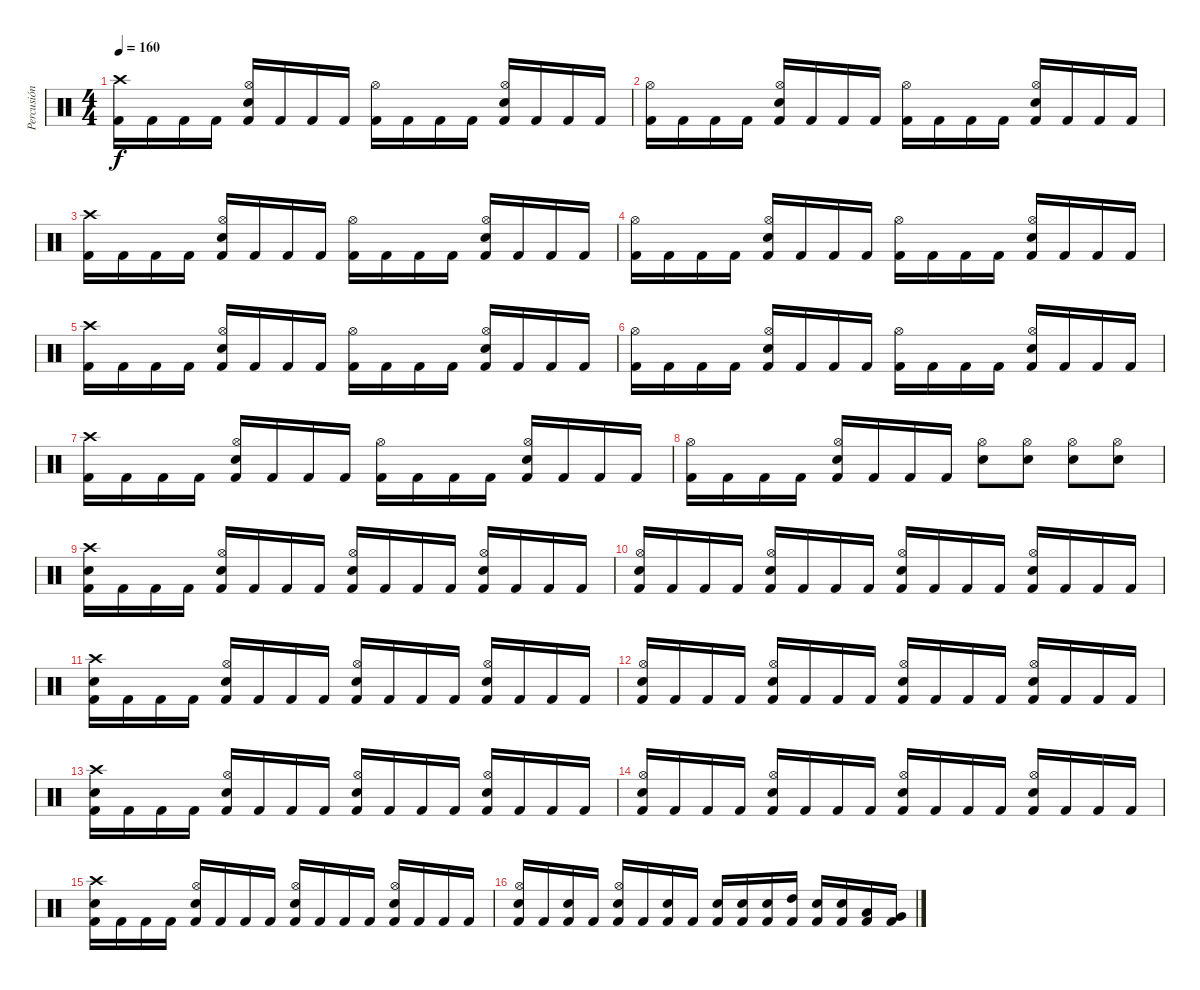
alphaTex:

\track ("Percusión" "Percusión") {instrument percussion}
\staff {score}
\articulation defaults
\ts (4 4)
\tempo 160
\clef neutral
\ks c
("Crash high (hit)" "Kick (hit) 2").16{dy f} "Kick (hit) 2".16 "Kick (hit) 2".16 "Kick (hit) 2".16 ("Hi-Hat (open)" "Snare (hit) 2" "Kick (hit) 2").16 "Kick (hit) 2".16 "Kick (hit) 2".16 "Kick (hit) 2".16 ("Hi-Hat (open)" "Kick (hit) 2").16 "Kick (hit) 2".16 "Kick (hit) 2".16 "Kick (hit) 2".16 ("Hi-Hat (open)" "Snare (hit) 2" "Kick (hit) 2").16 "Kick (hit) 2".16 "Kick (hit) 2".16 "Kick (hit) 2".16 |
("Hi-Hat (open)" "Kick (hit) 2").16 "Kick (hit) 2".16 "Kick (hit) 2".16 "Kick (hit) 2".16 ("Hi-Hat (open)" "Snare (hit) 2" "Kick (hit) 2").16 "Kick (hit) 2".16 "Kick (hit) 2".16 "Kick (hit) 2".16 ("Hi-Hat (open)" "Kick (hit) 2").16 "Kick (hit) 2".16 "Kick (hit) 2".16 "Kick (hit) 2".16 ("Hi-Hat (open)" "Snare (hit) 2" "Kick (hit) 2").16 "Kick (hit) 2".16 "Kick (hit) 2".16 "Kick (hit) 2".16 |
("Crash high (hit)" "Kick (hit) 2").16 "Kick (hit) 2".16 "Kick (hit) 2".16 "Kick (hit) 2".16 ("Hi-Hat (open)" "Snare (hit) 2" "Kick (hit) 2").16 "Kick (hit) 2".16 "Kick (hit) 2".16 "Kick (hit) 2".16 ("Hi-Hat (open)" "Kick (hit) 2").16 "Kick (hit) 2".16 "Kick (hit) 2".16 "Kick (hit) 2".16 ("Hi-Hat (open)" "Snare (hit) 2" "Kick (hit) 2").16 "Kick (hit) 2".16 "Kick (hit) 2".16 "Kick (hit) 2".16 |
("Hi-Hat (open)" "Kick (hit) 2").16 "Kick (hit) 2".16 "Kick (hit) 2".16 "Kick (hit) 2".16 ("Hi-Hat (open)" "Snare (hit) 2" "Kick (hit) 2").16 "Kick (hit) 2".16 "Kick (hit) 2".16 "Kick (hit) 2".16 ("Hi-Hat (open)" "Kick (hit) 2").16 "Kick (hit) 2".16 "Kick (hit) 2".16 "Kick (hit) 2".16 ("Hi-Hat (open)" "Snare (hit) 2" "Kick (hit) 2").16 "Kick (hit) 2".16 "Kick (hit) 2".16 "Kick (hit) 2".16 |
("Crash high (hit)" "Kick (hit) 2").16 "Kick (hit) 2".16 "Kick (hit) 2".16 "Kick (hit) 2".16 ("Hi-Hat (open)" "Snare (hit) 2" "Kick (hit) 2").16 "Kick (hit) 2".16 "Kick (hit) 2".16 "Kick (hit) 2".16 ("Hi-Hat (open)" "Kick (hit) 2").16 "Kick (hit) 2".16 "Kick (hit) 2".16 "Kick (hit) 2".16 ("Hi-Hat (open)" "Snare (hit) 2" "Kick (hit) 2").16 "Kick (hit) 2".16 "Kick (hit) 2".16 "Kick (hit) 2".16 |
("Hi-Hat (open)" "Kick (hit) 2").16 "Kick (hit) 2".16 "Kick (hit) 2".16 "Kick (hit) 2".16 ("Hi-Hat (open)" "Snare (hit) 2" "Kick (hit) 2").16 "Kick (hit) 2".16 "Kick (hit) 2".16 "Kick (hit) 2".16 ("Hi-Hat (open)" "Kick (hit) 2").16 "Kick (hit) 2".16 "Kick (hit) 2".16 "Kick (hit) 2".16 ("Hi-Hat (open)" "Snare (hit) 2" "Kick (hit) 2").16 "Kick (hit) 2".16 "Kick (hit) 2".16 "Kick (hit) 2".16 |
("Crash high (hit)" "Kick (hit) 2").16 "Kick (hit) 2".16 "Kick (hit) 2".16 "Kick (hit) 2".16 ("Hi-Hat (open)" "Snare (hit) 2" "Kick (hit) 2").16 "Kick (hit) 2".16 "Kick (hit) 2".16 "Kick (hit) 2".16 ("Hi-Hat (open)" "Kick (hit) 2").16 "Kick (hit) 2".16 "Kick (hit) 2".16 "Kick (hit) 2".16 ("Hi-Hat (open)" "Snare (hit) 2" "Kick (hit) 2").16 "Kick (hit) 2".16 "Kick (hit) 2".16 "Kick (hit) 2".16 |
("Hi-Hat (open)" "Kick (hit) 2").16 "Kick (hit) 2".16 "Kick (hit) 2".16 "Kick (hit) 2".16 ("Hi-Hat (open)" "Snare (hit) 2" "Kick (hit) 2").16 "Kick (hit) 2".16 "Kick (hit) 2".16 "Kick (hit) 2".16 ("Hi-Hat (open)" "Snare (hit) 2").8 ("Hi-Hat (open)" "Snare (hit) 2").8 ("Hi-Hat (open)" "Snare (hit) 2").8 ("Hi-Hat (open)" "Snare (hit) 2").8 |
("Crash high (hit)" "Snare (hit) 2" "Kick (hit) 2").16 "Kick (hit) 2".16 "Kick (hit) 2".16 "Kick (hit) 2".16 ("Hi-Hat (open)" "Snare (hit) 2" "Kick (hit) 2").16 "Kick (hit) 2".16 "Kick (hit) 2".16 "Kick (hit) 2".16 ("Hi-Hat (open)" "Snare (hit) 2" "Kick (hit) 2").16 "Kick (hit) 2".16 "Kick (hit) 2".16 "Kick (hit) 2".16 ("Hi-Hat (open)" "Snare (hit) 2" "Kick (hit) 2").16 "Kick (hit) 2".16 "Kick (hit) 2".16 "Kick (hit) 2".16 |
("Hi-Hat (open)" "Snare (hit) 2" "Kick (hit) 2").16 "Kick (hit) 2".16 "Kick (hit) 2".16 "Kick (hit) 2".16 ("Hi-Hat (open)" "Snare (hit) 2" "Kick (hit) 2").16 "Kick (hit) 2".16 "Kick (hit) 2".16 "Kick (hit) 2".16 ("Hi-Hat (open)" "Snare (hit) 2" "Kick (hit) 2").16 "Kick (hit) 2".16 "Kick (hit) 2".16 "Kick (hit) 2".16 ("Hi-Hat (open)" "Snare (hit) 2" "Kick (hit) 2").16 "Kick (hit) 2".16 "Kick (hit) 2".16 "Kick (hit) 2".16 |
("Crash high (hit)" "Snare (hit) 2" "Kick (hit) 2").16 "Kick (hit) 2".16 "Kick (hit) 2".16 "Kick (hit) 2".16 ("Hi-Hat (open)" "Snare (hit) 2" "Kick (hit) 2").16 "Kick (hit) 2".16 "Kick (hit) 2".16 "Kick (hit) 2".16 ("Hi-Hat (open)" "Snare (hit) 2" "Kick (hit) 2").16 "Kick (hit) 2".16 "Kick (hit) 2".16 "Kick (hit) 2".16 ("Hi-Hat (open)" "Snare (hit) 2" "Kick (hit) 2").16 "Kick (hit) 2".16 "Kick (hit) 2".16 "Kick (hit) 2".16 |
("Hi-Hat (open)" "Snare (hit) 2" "Kick (hit) 2").16 "Kick (hit) 2".16 "Kick (hit) 2".16 "Kick (hit) 2".16 ("Hi-Hat (open)" "Snare (hit) 2" "Kick (hit) 2").16 "Kick (hit) 2".16 "Kick (hit) 2".16 "Kick (hit) 2".16 ("Hi-Hat (open)" "Snare (hit) 2" "Kick (hit) 2").16 "Kick (hit) 2".16 "Kick (hit) 2".16 "Kick (hit) 2".16 ("Hi-Hat (open)" "Snare (hit) 2" "Kick (hit) 2").16 "Kick (hit) 2".16 "Kick (hit) 2".16 "Kick (hit) 2".16 |
("Crash high (hit)" "Snare (hit) 2" "Kick (hit) 2").16 "Kick (hit) 2".16 "Kick (hit) 2".16 "Kick (hit) 2".16 ("Hi-Hat (open)" "Snare (hit) 2" "Kick (hit) 2").16 "Kick (hit) 2".16 "Kick (hit) 2".16 "Kick (hit) 2".16 ("Hi-Hat (open)" "Snare (hit) 2" "Kick (hit) 2").16 "Kick (hit) 2".16 "Kick (hit) 2".16 "Kick (hit) 2".16 ("Hi-Hat (open)" "Snare (hit) 2" "Kick (hit) 2").16 "Kick (hit) 2".16 "Kick (hit) 2".16 "Kick (hit) 2".16 |
("Hi-Hat (open)" "Snare (hit) 2" "Kick (hit) 2").16 "Kick (hit) 2".16 "Kick (hit) 2".16 "Kick (hit) 2".16 ("Hi-Hat (open)" "Snare (hit) 2" "Kick (hit) 2").16 "Kick (hit) 2".16 "Kick (hit) 2".16 "Kick (hit) 2".16 ("Hi-Hat (open)" "Snare (hit) 2" "Kick (hit) 2").16 "Kick (hit) 2".16 "Kick (hit) 2".16 "Kick (hit) 2".16 ("Hi-Hat (open)" "Snare (hit) 2" "Kick (hit) 2").16 "Kick (hit) 2".16 "Kick (hit) 2".16 "Kick (hit) 2".16 |
("Crash high (hit)" "Snare (hit) 2" "Kick (hit) 2").16 "Kick (hit) 2".16 "Kick (hit) 2".16 "Kick (hit) 2".16 ("Hi-Hat (open)" "Snare (hit) 2" "Kick (hit) 2").16 "Kick (hit) 2".16 "Kick (hit) 2".16 "Kick (hit) 2".16 ("Hi-Hat (open)" "Snare (hit) 2" "Kick (hit) 2").16 "Kick (hit) 2".16 "Kick (hit) 2".16 "Kick (hit) 2".16 ("Hi-Hat (open)" "Snare (hit) 2" "Kick (hit) 2").16 "Kick (hit) 2".16 "Kick (hit) 2".16 "Kick (hit) 2".16 |
("Hi-Hat (open)" "Snare (hit) 2" "Kick (hit) 2").16 "Kick (hit) 2".16 ("Snare (hit) 2" "Kick (hit) 2").16 "Kick (hit) 2".16 ("Hi-Hat (open)" "Snare (hit) 2" "Kick (hit) 2").16 "Kick (hit) 2".16 ("Snare (hit) 2" "Kick (hit) 2").16 "Kick (hit) 2".16 ("Snare (hit) 2" "Kick (hit) 2").16 ("Snare (hit) 2" "Kick (hit) 2").16 ("Snare (hit) 2" "Kick (hit) 2").16 ("High Tom (hit)" "Kick (hit) 2").16 ("Snare (hit) 2" "Kick (hit) 2").16 ("Snare (hit) 2" "Kick (hit) 2").16 ("Low Tom (hit)" "Kick (hit) 2").16 ("Very Low Tom (hit)" "Kick (hit) 2").16
